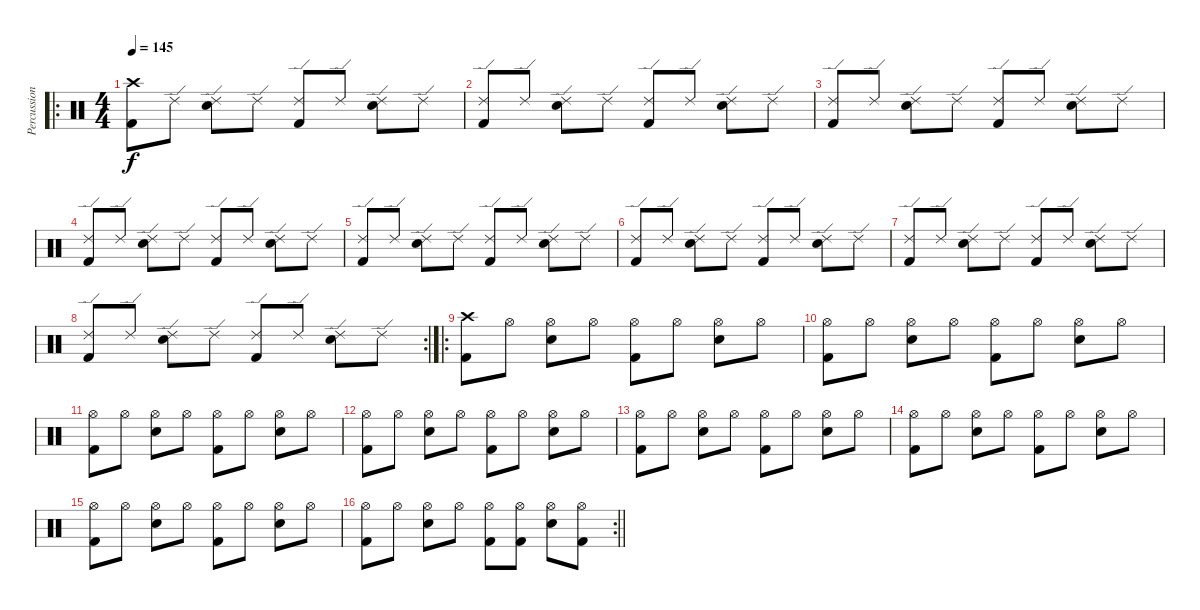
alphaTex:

\track ("Percussion" "Percussion") {instrument percussion}
\staff {score}
\articulation defaults
\ro
\ts (4 4)
\tempo 145
\clef neutral
\ks c
("Crash high (hit)" "Kick (hit) 2").8{dy f} "Ride (edge) 2".8 ("Ride (edge) 2" "Electric Snare (hit)").8 "Ride (edge) 2".8 ("Ride (edge) 2" "Kick (hit) 2").8 "Ride (edge) 2".8 ("Ride (edge) 2" "Electric Snare (hit)").8 "Ride (edge) 2".8 |
("Ride (edge) 2" "Kick (hit) 2").8 "Ride (edge) 2".8 ("Ride (edge) 2" "Electric Snare (hit)").8 "Ride (edge) 2".8 ("Ride (edge) 2" "Kick (hit) 2").8 "Ride (edge) 2".8 ("Ride (edge) 2" "Electric Snare (hit)").8 "Ride (edge) 2".8 |
("Ride (edge) 2" "Kick (hit) 2").8 "Ride (edge) 2".8 ("Ride (edge) 2" "Electric Snare (hit)").8 "Ride (edge) 2".8 ("Ride (edge) 2" "Kick (hit) 2").8 "Ride (edge) 2".8 ("Ride (edge) 2" "Electric Snare (hit)").8 "Ride (edge) 2".8 |
("Ride (edge) 2" "Kick (hit) 2").8 "Ride (edge) 2".8 ("Ride (edge) 2" "Electric Snare (hit)").8 "Ride (edge) 2".8 ("Ride (edge) 2" "Kick (hit) 2").8 "Ride (edge) 2".8 ("Ride (edge) 2" "Electric Snare (hit)").8 "Ride (edge) 2".8 |
("Ride (edge) 2" "Kick (hit) 2").8 "Ride (edge) 2".8 ("Ride (edge) 2" "Electric Snare (hit)").8 "Ride (edge) 2".8 ("Ride (edge) 2" "Kick (hit) 2").8 "Ride (edge) 2".8 ("Ride (edge) 2" "Electric Snare (hit)").8 "Ride (edge) 2".8 |
("Ride (edge) 2" "Kick (hit) 2").8 "Ride (edge) 2".8 ("Ride (edge) 2" "Electric Snare (hit)").8 "Ride (edge) 2".8 ("Ride (edge) 2" "Kick (hit) 2").8 "Ride (edge) 2".8 ("Ride (edge) 2" "Electric Snare (hit)").8 "Ride (edge) 2".8 |
("Ride (edge) 2" "Kick (hit) 2").8 "Ride (edge) 2".8 ("Ride (edge) 2" "Electric Snare (hit)").8 "Ride (edge) 2".8 ("Ride (edge) 2" "Kick (hit) 2").8 "Ride (edge) 2".8 ("Ride (edge) 2" "Electric Snare (hit)").8 "Ride (edge) 2".8 |
\rc 2
("Ride (edge) 2" "Kick (hit) 2").8 "Ride (edge) 2".8 ("Ride (edge) 2" "Electric Snare (hit)").8 "Ride (edge) 2".8 ("Ride (edge) 2" "Kick (hit) 2").8 "Ride (edge) 2".8 ("Ride (edge) 2" "Electric Snare (hit)").8 "Ride (edge) 2".8 |
\ro
("Crash high (hit)" "Kick (hit) 2").8 "Hi-Hat (open)".8 ("Hi-Hat (open)" "Electric Snare (hit)").8 "Hi-Hat (open)".8 ("Hi-Hat (open)" "Kick (hit) 2").8 "Hi-Hat (open)".8 ("Hi-Hat (open)" "Electric Snare (hit)").8 "Hi-Hat (open)".8 |
("Hi-Hat (open)" "Kick (hit) 2").8 "Hi-Hat (open)".8 ("Hi-Hat (open)" "Electric Snare (hit)").8 "Hi-Hat (open)".8 ("Hi-Hat (open)" "Kick (hit) 2").8 "Hi-Hat (open)".8 ("Hi-Hat (open)" "Electric Snare (hit)").8 "Hi-Hat (open)".8 |
("Hi-Hat (open)" "Kick (hit) 2").8 "Hi-Hat (open)".8 ("Hi-Hat (open)" "Electric Snare (hit)").8 "Hi-Hat (open)".8 ("Hi-Hat (open)" "Kick (hit) 2").8 "Hi-Hat (open)".8 ("Hi-Hat (open)" "Electric Snare (hit)").8 "Hi-Hat (open)".8 |
("Hi-Hat (open)" "Kick (hit) 2").8 "Hi-Hat (open)".8 ("Hi-Hat (open)" "Electric Snare (hit)").8 "Hi-Hat (open)".8 ("Hi-Hat (open)" "Kick (hit) 2").8 "Hi-Hat (open)".8 ("Hi-Hat (open)" "Electric Snare (hit)").8 "Hi-Hat (open)".8 |
("Hi-Hat (open)" "Kick (hit) 2").8 "Hi-Hat (open)".8 ("Hi-Hat (open)" "Electric Snare (hit)").8 "Hi-Hat (open)".8 ("Hi-Hat (open)" "Kick (hit) 2").8 "Hi-Hat (open)".8 ("Hi-Hat (open)" "Electric Snare (hit)").8 "Hi-Hat (open)".8 |
("Hi-Hat (open)" "Kick (hit) 2").8 "Hi-Hat (open)".8 ("Hi-Hat (open)" "Electric Snare (hit)").8 "Hi-Hat (open)".8 ("Hi-Hat (open)" "Kick (hit) 2").8 "Hi-Hat (open)".8 ("Hi-Hat (open)" "Electric Snare (hit)").8 "Hi-Hat (open)".8 |
("Hi-Hat (open)" "Kick (hit) 2").8 "Hi-Hat (open)".8 ("Hi-Hat (open)" "Electric Snare (hit)").8 "Hi-Hat (open)".8 ("Hi-Hat (open)" "Kick (hit) 2").8 "Hi-Hat (open)".8 ("Hi-Hat (open)" "Electric Snare (hit)").8 "Hi-Hat (open)".8 |
\rc 2
\barLineRight lightlight
("Hi-Hat (open)" "Kick (hit) 2").8 "Hi-Hat (open)".8 ("Hi-Hat (open)" "Electric Snare (hit)").8 "Hi-Hat (open)".8 ("Hi-Hat (open)" "Kick (hit) 2").8 ("Hi-Hat (open)" "Kick (hit) 2").8 ("Hi-Hat (open)" "Electric Snare (hit)").8 ("Hi-Hat (open)" "Kick (hit) 2").8
